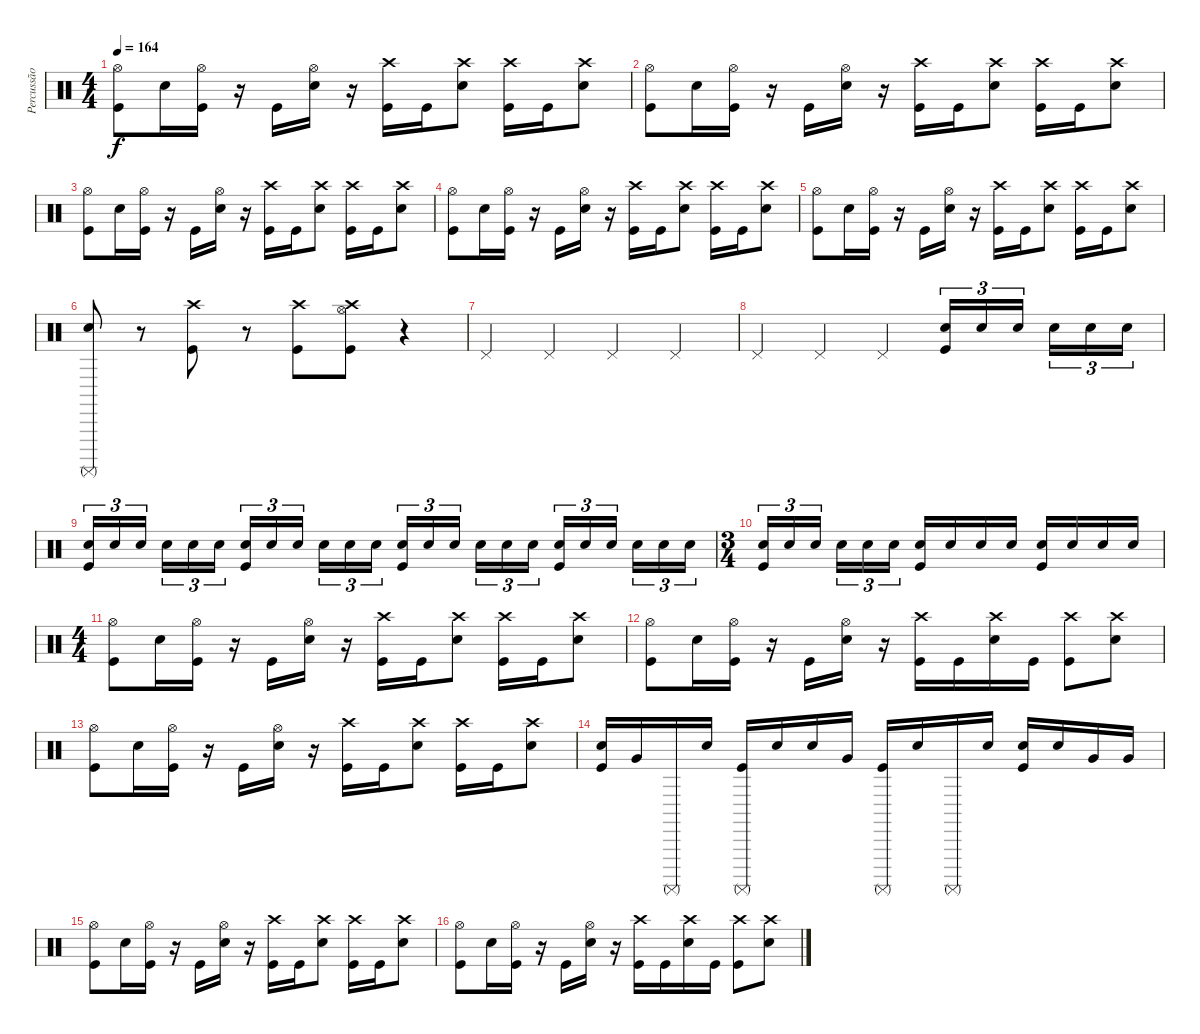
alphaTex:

\track ("Percussão" "Percussão") {instrument percussion}
\staff {score}
\articulation defaults
\ts (4 4)
\tempo 164
\clef neutral
\ks c
("Hi-Hat (open)" "Kick (hit)").8{dy f} "Electric Snare (hit)".16 ("Hi-Hat (open)" "Kick (hit)").16 r.16 "Kick (hit)".16 ("Hi-Hat (open)" "Electric Snare (hit)").16 r.16 ("Crash high (hit)" "Kick (hit)").16 "Kick (hit)".16 ("Crash high (hit)" "Electric Snare (hit)").8 ("Crash high (hit)" "Kick (hit)").16 "Kick (hit)".16 ("Crash high (hit)" "Electric Snare (hit)").8 |
("Hi-Hat (open)" "Kick (hit)").8 "Electric Snare (hit)".16 ("Hi-Hat (open)" "Kick (hit)").16 r.16 "Kick (hit)".16 ("Hi-Hat (open)" "Electric Snare (hit)").16 r.16 ("Crash high (hit)" "Kick (hit)").16 "Kick (hit)".16 ("Crash high (hit)" "Electric Snare (hit)").8 ("Crash high (hit)" "Kick (hit)").16 "Kick (hit)".16 ("Crash high (hit)" "Electric Snare (hit)").8 |
("Hi-Hat (open)" "Kick (hit)").8 "Electric Snare (hit)".16 ("Hi-Hat (open)" "Kick (hit)").16 r.16 "Kick (hit)".16 ("Hi-Hat (open)" "Electric Snare (hit)").16 r.16 ("Crash high (hit)" "Kick (hit)").16 "Kick (hit)".16 ("Crash high (hit)" "Electric Snare (hit)").8 ("Crash high (hit)" "Kick (hit)").16 "Kick (hit)".16 ("Crash high (hit)" "Electric Snare (hit)").8 |
("Hi-Hat (open)" "Kick (hit)").8 "Electric Snare (hit)".16 ("Hi-Hat (open)" "Kick (hit)").16 r.16 "Kick (hit)".16 ("Hi-Hat (open)" "Electric Snare (hit)").16 r.16 ("Crash high (hit)" "Kick (hit)").16 "Kick (hit)".16 ("Crash high (hit)" "Electric Snare (hit)").8 ("Crash high (hit)" "Kick (hit)").16 "Kick (hit)".16 ("Crash high (hit)" "Electric Snare (hit)").8 |
("Hi-Hat (open)" "Kick (hit)").8 "Electric Snare (hit)".16 ("Hi-Hat (open)" "Kick (hit)").16 r.16 "Kick (hit)".16 ("Hi-Hat (open)" "Electric Snare (hit)").16 r.16 ("Crash high (hit)" "Kick (hit)").16 "Kick (hit)".16 ("Crash high (hit)" "Electric Snare (hit)").8 ("Crash high (hit)" "Kick (hit)").16 "Kick (hit)".16 ("Crash high (hit)" "Electric Snare (hit)").8 |
("Surdo (mute)" "Electric Snare (hit)").8 r.8 ("Crash high (hit)" "Kick (hit)").8 r.8 ("Crash high (hit)" "Kick (hit)").8 ("Crash high (hit)" "Hi-Hat (open)" "Kick (hit)").8 r.4 |
"Pedal Hi-Hat (hit)".4 "Pedal Hi-Hat (hit)".4 "Pedal Hi-Hat (hit)".4 "Pedal Hi-Hat (hit)".4 |
"Pedal Hi-Hat (hit)".4 "Pedal Hi-Hat (hit)".4 "Pedal Hi-Hat (hit)".4 ("Electric Snare (hit)" "Kick (hit)").16{tu (3 2)} "Electric Snare (hit)".16{tu (3 2)} "Electric Snare (hit)".16{tu (3 2) beam splitsecondary} "Electric Snare (hit)".16{tu (3 2)} "Electric Snare (hit)".16{tu (3 2)} "Electric Snare (hit)".16{tu (3 2)} |
("Electric Snare (hit)" "Kick (hit)").16{tu (3 2)} "Electric Snare (hit)".16{tu (3 2)} "Electric Snare (hit)".16{tu (3 2) beam splitsecondary} "Electric Snare (hit)".16{tu (3 2)} "Electric Snare (hit)".16{tu (3 2)} "Electric Snare (hit)".16{tu (3 2)} ("Electric Snare (hit)" "Kick (hit)").16{tu (3 2)} "Electric Snare (hit)".16{tu (3 2)} "Electric Snare (hit)".16{tu (3 2) beam splitsecondary} "Electric Snare (hit)".16{tu (3 2)} "Electric Snare (hit)".16{tu (3 2)} "Electric Snare (hit)".16{tu (3 2)} ("Electric Snare (hit)" "Kick (hit)").16{tu (3 2)} "Electric Snare (hit)".16{tu (3 2)} "Electric Snare (hit)".16{tu (3 2) beam splitsecondary} "Electric Snare (hit)".16{tu (3 2)} "Electric Snare (hit)".16{tu (3 2)} "Electric Snare (hit)".16{tu (3 2)} ("Electric Snare (hit)" "Kick (hit)").16{tu (3 2)} "Electric Snare (hit)".16{tu (3 2)} "Electric Snare (hit)".16{tu (3 2) beam splitsecondary} "Electric Snare (hit)".16{tu (3 2)} "Electric Snare (hit)".16{tu (3 2)} "Electric Snare (hit)".16{tu (3 2)} |
\ts (3 4)
("Electric Snare (hit)" "Kick (hit)").16{tu (3 2)} "Electric Snare (hit)".16{tu (3 2)} "Electric Snare (hit)".16{tu (3 2) beam splitsecondary} "Electric Snare (hit)".16{tu (3 2)} "Electric Snare (hit)".16{tu (3 2)} "Electric Snare (hit)".16{tu (3 2)} ("Electric Snare (hit)" "Kick (hit)").16 "Electric Snare (hit)".16 "Electric Snare (hit)".16 "Electric Snare (hit)".16 ("Electric Snare (hit)" "Kick (hit)").16 "Electric Snare (hit)".16 "Electric Snare (hit)".16 "Electric Snare (hit)".16 |
\ts (4 4)
("Hi-Hat (open)" "Kick (hit)").8 "Electric Snare (hit)".16 ("Hi-Hat (open)" "Kick (hit)").16 r.16 "Kick (hit)".16 ("Hi-Hat (open)" "Electric Snare (hit)").16 r.16 ("Crash high (hit)" "Kick (hit)").16 "Kick (hit)".16 ("Crash high (hit)" "Electric Snare (hit)").8 ("Crash high (hit)" "Kick (hit)").16 "Kick (hit)".16 ("Crash high (hit)" "Electric Snare (hit)").8 |
("Hi-Hat (open)" "Kick (hit)").8 "Electric Snare (hit)".16 ("Hi-Hat (open)" "Kick (hit)").16 r.16 "Kick (hit)".16 ("Hi-Hat (open)" "Electric Snare (hit)").16 r.16 ("Crash high (hit)" "Kick (hit)").16 "Kick (hit)".16 ("Crash high (hit)" "Electric Snare (hit)").16 "Kick (hit)".16 ("Crash high (hit)" "Kick (hit)").8 ("Crash high (hit)" "Electric Snare (hit)").8 |
("Hi-Hat (open)" "Kick (hit)").8 "Electric Snare (hit)".16 ("Hi-Hat (open)" "Kick (hit)").16 r.16 "Kick (hit)".16 ("Hi-Hat (open)" "Electric Snare (hit)").16 r.16 ("Crash high (hit)" "Kick (hit)").16 "Kick (hit)".16 ("Crash high (hit)" "Electric Snare (hit)").8 ("Crash high (hit)" "Kick (hit)").16 "Kick (hit)".16 ("Crash high (hit)" "Electric Snare (hit)").8 |
("Electric Snare (hit)" "Kick (hit)").16 "Very Low Tom (hit)".16 "Surdo (mute)".16 "Electric Snare (hit)".16 ("Surdo (mute)" "Kick (hit)").16 "Electric Snare (hit)".16 "Electric Snare (hit)".16 "Very Low Tom (hit)".16 ("Surdo (mute)" "Kick (hit)").16 "Electric Snare (hit)".16 "Surdo (mute)".16 "Electric Snare (hit)".16 ("Electric Snare (hit)" "Kick (hit)").16 "Electric Snare (hit)".16 "Very Low Tom (hit)".16 "Very Low Tom (hit)".16 |
("Hi-Hat (open)" "Kick (hit)").8 "Electric Snare (hit)".16 ("Hi-Hat (open)" "Kick (hit)").16 r.16 "Kick (hit)".16 ("Hi-Hat (open)" "Electric Snare (hit)").16 r.16 ("Crash high (hit)" "Kick (hit)").16 "Kick (hit)".16 ("Crash high (hit)" "Electric Snare (hit)").8 ("Crash high (hit)" "Kick (hit)").16 "Kick (hit)".16 ("Crash high (hit)" "Electric Snare (hit)").8 |
("Hi-Hat (open)" "Kick (hit)").8 "Electric Snare (hit)".16 ("Hi-Hat (open)" "Kick (hit)").16 r.16 "Kick (hit)".16 ("Hi-Hat (open)" "Electric Snare (hit)").16 r.16 ("Crash high (hit)" "Kick (hit)").16 "Kick (hit)".16 ("Crash high (hit)" "Electric Snare (hit)").16 "Kick (hit)".16 ("Crash high (hit)" "Kick (hit)").8 ("Crash high (hit)" "Electric Snare (hit)").8
